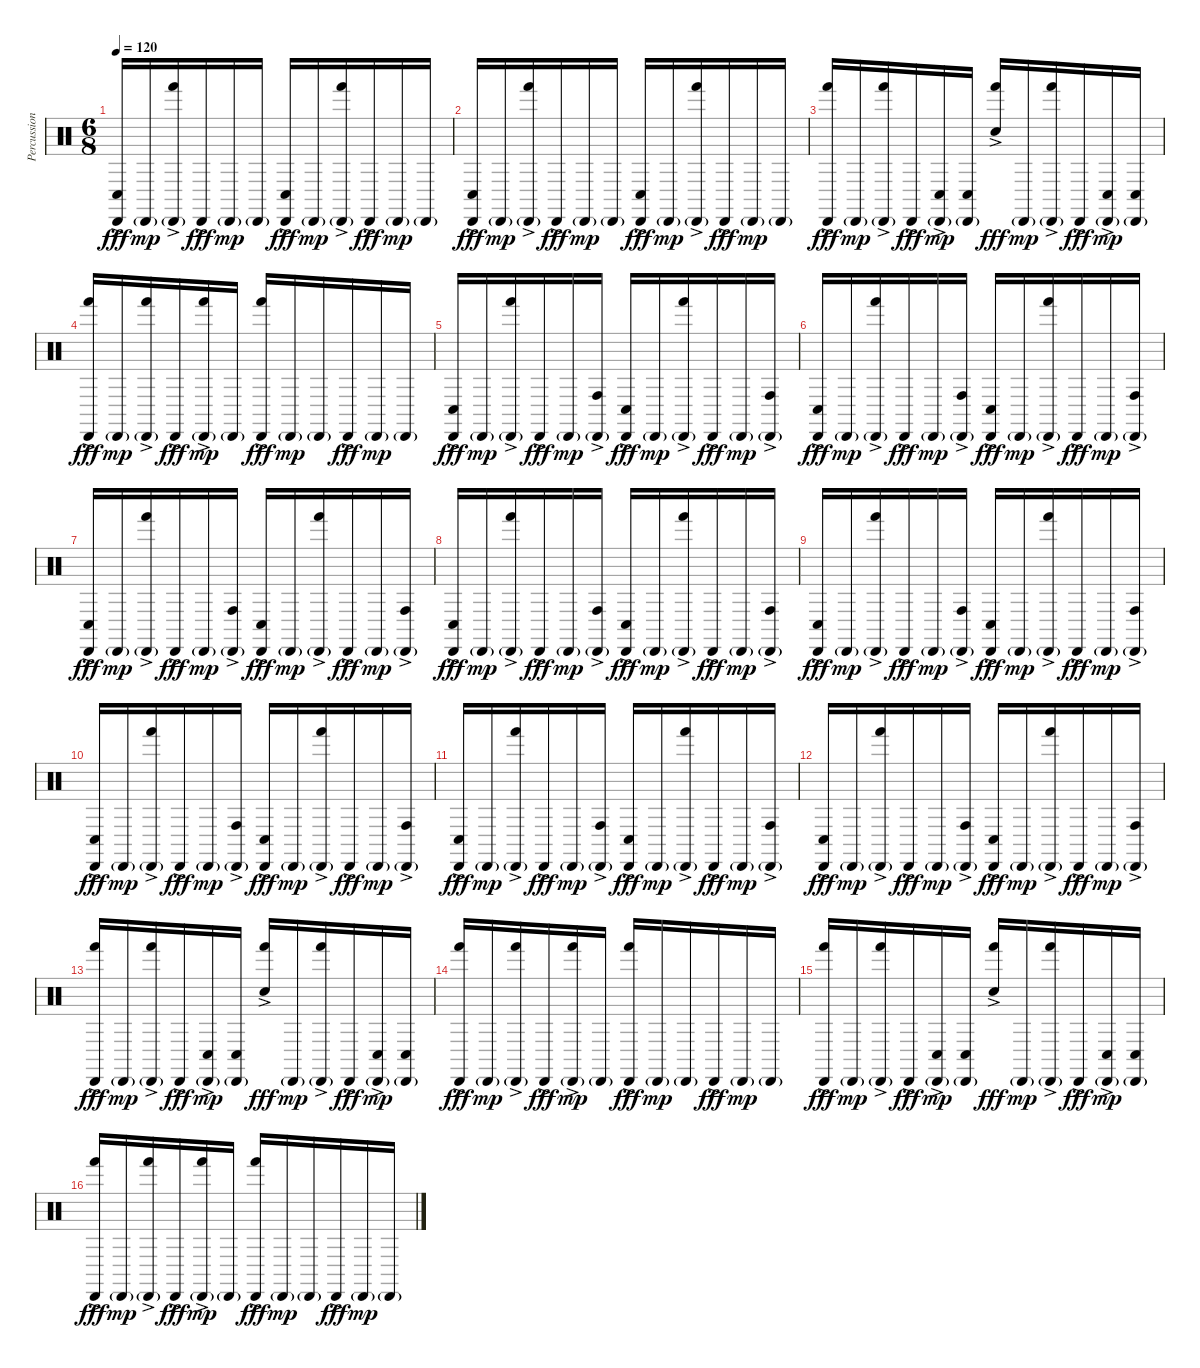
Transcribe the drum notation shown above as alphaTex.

\track ("Percussion" "Percussion") {instrument percussion}
\staff {score}
\articulation defaults
\ts (6 8)
\tempo 120
\clef neutral
\ks c
("Conga low (hit)"{ac} "Cabasa (hit)"{ac}).16{dy fff} "Cabasa (hit)"{g}.16{dy mp} ("Hand (hit)"{ac} "Cabasa (hit)"{g}).16 "Cabasa (hit)"{ac}.16{dy fff} "Cabasa (hit)"{g}.16{dy mp} "Cabasa (hit)"{g}.16 ("Conga low (hit)"{ac} "Cabasa (hit)"{ac}).16{dy fff} "Cabasa (hit)"{g}.16{dy mp} ("Hand (hit)"{ac} "Cabasa (hit)"{g}).16 "Cabasa (hit)"{ac}.16{dy fff} "Cabasa (hit)"{g}.16{dy mp} "Cabasa (hit)"{g}.16 |
("Conga low (hit)"{ac} "Cabasa (hit)"{ac}).16{dy fff} "Cabasa (hit)"{g}.16{dy mp} ("Hand (hit)"{ac} "Cabasa (hit)"{g}).16 "Cabasa (hit)"{ac}.16{dy fff} "Cabasa (hit)"{g}.16{dy mp} "Cabasa (hit)"{g}.16 ("Conga low (hit)"{ac} "Cabasa (hit)"{ac}).16{dy fff} "Cabasa (hit)"{g}.16{dy mp} ("Hand (hit)"{ac} "Cabasa (hit)"{g}).16 "Cabasa (hit)"{ac}.16{dy fff} "Cabasa (hit)"{g}.16{dy mp} "Cabasa (hit)"{g}.16 |
("Hand (hit)"{ac} "Cabasa (hit)"{ac}).16{dy fff} "Cabasa (hit)"{g}.16{dy mp} ("Hand (hit)"{ac} "Cabasa (hit)"{g}).16 "Cabasa (hit)"{ac}.16{dy fff} ("Conga low (hit)"{ac} "Cabasa (hit)"{g}).16{dy mp} ("Conga low (hit)" "Cabasa (hit)"{g}).16 ("Hand (hit)"{ac} "Snare (hit)"{ac}).16{dy fff} "Cabasa (hit)"{g}.16{dy mp} ("Hand (hit)"{ac} "Cabasa (hit)"{g}).16 "Cabasa (hit)"{ac}.16{dy fff} ("Conga low (hit)"{ac} "Cabasa (hit)"{g}).16{dy mp} ("Conga low (hit)" "Cabasa (hit)"{g}).16 |
("Hand (hit)"{ac} "Cabasa (hit)"{ac}).16{dy fff} "Cabasa (hit)"{g}.16{dy mp} ("Hand (hit)"{ac} "Cabasa (hit)"{g}).16 "Cabasa (hit)"{ac}.16{dy fff} ("Hand (hit)"{ac} "Cabasa (hit)"{g}).16{dy mp} "Cabasa (hit)"{g}.16 ("Hand (hit)"{ac} "Cabasa (hit)"{ac}).16{dy fff} "Cabasa (hit)"{g}.16{dy mp} "Cabasa (hit)"{g}.16 "Cabasa (hit)"{ac}.16{dy fff} "Cabasa (hit)"{g}.16{dy mp} "Cabasa (hit)"{g}.16 |
("Conga low (hit)"{ac} "Cabasa (hit)"{ac}).16{dy fff} "Cabasa (hit)"{g}.16{dy mp} ("Hand (hit)"{ac} "Cabasa (hit)"{g}).16 "Cabasa (hit)"{ac}.16{dy fff} "Cabasa (hit)"{g}.16{dy mp} ("Conga high (hit)"{ac} "Cabasa (hit)"{g}).16 ("Conga low (hit)"{ac} "Cabasa (hit)"{ac}).16{dy fff} "Cabasa (hit)"{g}.16{dy mp} ("Hand (hit)"{ac} "Cabasa (hit)"{g}).16 "Cabasa (hit)"{ac}.16{dy fff} "Cabasa (hit)"{g}.16{dy mp} ("Conga high (hit)"{ac} "Cabasa (hit)"{g}).16 |
("Conga low (hit)"{ac} "Cabasa (hit)"{ac}).16{dy fff} "Cabasa (hit)"{g}.16{dy mp} ("Hand (hit)"{ac} "Cabasa (hit)"{g}).16 "Cabasa (hit)"{ac}.16{dy fff} "Cabasa (hit)"{g}.16{dy mp} ("Conga high (hit)"{ac} "Cabasa (hit)"{g}).16 ("Conga low (hit)"{ac} "Cabasa (hit)"{ac}).16{dy fff} "Cabasa (hit)"{g}.16{dy mp} ("Hand (hit)"{ac} "Cabasa (hit)"{g}).16 "Cabasa (hit)"{ac}.16{dy fff} "Cabasa (hit)"{g}.16{dy mp} ("Conga high (hit)"{ac} "Cabasa (hit)"{g}).16 |
("Conga low (hit)"{ac} "Cabasa (hit)"{ac}).16{dy fff} "Cabasa (hit)"{g}.16{dy mp} ("Hand (hit)"{ac} "Cabasa (hit)"{g}).16 "Cabasa (hit)"{ac}.16{dy fff} "Cabasa (hit)"{g}.16{dy mp} ("Conga high (hit)"{ac} "Cabasa (hit)"{g}).16 ("Conga low (hit)"{ac} "Cabasa (hit)"{ac}).16{dy fff} "Cabasa (hit)"{g}.16{dy mp} ("Hand (hit)"{ac} "Cabasa (hit)"{g}).16 "Cabasa (hit)"{ac}.16{dy fff} "Cabasa (hit)"{g}.16{dy mp} ("Conga high (hit)"{ac} "Cabasa (hit)"{g}).16 |
("Conga low (hit)"{ac} "Cabasa (hit)"{ac}).16{dy fff} "Cabasa (hit)"{g}.16{dy mp} ("Hand (hit)"{ac} "Cabasa (hit)"{g}).16 "Cabasa (hit)"{ac}.16{dy fff} "Cabasa (hit)"{g}.16{dy mp} ("Conga high (hit)"{ac} "Cabasa (hit)"{g}).16 ("Conga low (hit)"{ac} "Cabasa (hit)"{ac}).16{dy fff} "Cabasa (hit)"{g}.16{dy mp} ("Hand (hit)"{ac} "Cabasa (hit)"{g}).16 "Cabasa (hit)"{ac}.16{dy fff} "Cabasa (hit)"{g}.16{dy mp} ("Conga high (hit)"{ac} "Cabasa (hit)"{g}).16 |
("Conga low (hit)"{ac} "Cabasa (hit)"{ac}).16{dy fff} "Cabasa (hit)"{g}.16{dy mp} ("Hand (hit)"{ac} "Cabasa (hit)"{g}).16 "Cabasa (hit)"{ac}.16{dy fff} "Cabasa (hit)"{g}.16{dy mp} ("Conga high (hit)"{ac} "Cabasa (hit)"{g}).16 ("Conga low (hit)"{ac} "Cabasa (hit)"{ac}).16{dy fff} "Cabasa (hit)"{g}.16{dy mp} ("Hand (hit)"{ac} "Cabasa (hit)"{g}).16 "Cabasa (hit)"{ac}.16{dy fff} "Cabasa (hit)"{g}.16{dy mp} ("Conga high (hit)"{ac} "Cabasa (hit)"{g}).16 |
("Conga low (hit)"{ac} "Cabasa (hit)"{ac}).16{dy fff} "Cabasa (hit)"{g}.16{dy mp} ("Hand (hit)"{ac} "Cabasa (hit)"{g}).16 "Cabasa (hit)"{ac}.16{dy fff} "Cabasa (hit)"{g}.16{dy mp} ("Conga high (hit)"{ac} "Cabasa (hit)"{g}).16 ("Conga low (hit)"{ac} "Cabasa (hit)"{ac}).16{dy fff} "Cabasa (hit)"{g}.16{dy mp} ("Hand (hit)"{ac} "Cabasa (hit)"{g}).16 "Cabasa (hit)"{ac}.16{dy fff} "Cabasa (hit)"{g}.16{dy mp} ("Conga high (hit)"{ac} "Cabasa (hit)"{g}).16 |
("Conga low (hit)"{ac} "Cabasa (hit)"{ac}).16{dy fff} "Cabasa (hit)"{g}.16{dy mp} ("Hand (hit)"{ac} "Cabasa (hit)"{g}).16 "Cabasa (hit)"{ac}.16{dy fff} "Cabasa (hit)"{g}.16{dy mp} ("Conga high (hit)"{ac} "Cabasa (hit)"{g}).16 ("Conga low (hit)"{ac} "Cabasa (hit)"{ac}).16{dy fff} "Cabasa (hit)"{g}.16{dy mp} ("Hand (hit)"{ac} "Cabasa (hit)"{g}).16 "Cabasa (hit)"{ac}.16{dy fff} "Cabasa (hit)"{g}.16{dy mp} ("Conga high (hit)"{ac} "Cabasa (hit)"{g}).16 |
("Conga low (hit)"{ac} "Cabasa (hit)"{ac}).16{dy fff} "Cabasa (hit)"{g}.16{dy mp} ("Hand (hit)"{ac} "Cabasa (hit)"{g}).16 "Cabasa (hit)"{ac}.16{dy fff} "Cabasa (hit)"{g}.16{dy mp} ("Conga high (hit)"{ac} "Cabasa (hit)"{g}).16 ("Conga low (hit)"{ac} "Cabasa (hit)"{ac}).16{dy fff} "Cabasa (hit)"{g}.16{dy mp} ("Hand (hit)"{ac} "Cabasa (hit)"{g}).16 "Cabasa (hit)"{ac}.16{dy fff} "Cabasa (hit)"{g}.16{dy mp} ("Conga high (hit)"{ac} "Cabasa (hit)"{g}).16 |
("Hand (hit)"{ac} "Cabasa (hit)"{ac}).16{dy fff} "Cabasa (hit)"{g}.16{dy mp} ("Hand (hit)"{ac} "Cabasa (hit)"{g}).16 "Cabasa (hit)"{ac}.16{dy fff} ("Conga low (hit)"{ac} "Cabasa (hit)"{g}).16{dy mp} ("Conga low (hit)" "Cabasa (hit)"{g}).16 ("Hand (hit)"{ac} "Snare (hit)"{ac}).16{dy fff} "Cabasa (hit)"{g}.16{dy mp} ("Hand (hit)"{ac} "Cabasa (hit)"{g}).16 "Cabasa (hit)"{ac}.16{dy fff} ("Conga low (hit)"{ac} "Cabasa (hit)"{g}).16{dy mp} ("Conga low (hit)" "Cabasa (hit)"{g}).16 |
("Hand (hit)"{ac} "Cabasa (hit)"{ac}).16{dy fff} "Cabasa (hit)"{g}.16{dy mp} ("Hand (hit)"{ac} "Cabasa (hit)"{g}).16 "Cabasa (hit)"{ac}.16{dy fff} ("Hand (hit)"{ac} "Cabasa (hit)"{g}).16{dy mp} "Cabasa (hit)"{g}.16 ("Hand (hit)"{ac} "Cabasa (hit)"{ac}).16{dy fff} "Cabasa (hit)"{g}.16{dy mp} "Cabasa (hit)"{g}.16 "Cabasa (hit)"{ac}.16{dy fff} "Cabasa (hit)"{g}.16{dy mp} "Cabasa (hit)"{g}.16 |
("Hand (hit)"{ac} "Cabasa (hit)"{ac}).16{dy fff} "Cabasa (hit)"{g}.16{dy mp} ("Hand (hit)"{ac} "Cabasa (hit)"{g}).16 "Cabasa (hit)"{ac}.16{dy fff} ("Conga low (hit)"{ac} "Cabasa (hit)"{g}).16{dy mp} ("Conga low (hit)" "Cabasa (hit)"{g}).16 ("Hand (hit)"{ac} "Snare (hit)"{ac}).16{dy fff} "Cabasa (hit)"{g}.16{dy mp} ("Hand (hit)"{ac} "Cabasa (hit)"{g}).16 "Cabasa (hit)"{ac}.16{dy fff} ("Conga low (hit)"{ac} "Cabasa (hit)"{g}).16{dy mp} ("Conga low (hit)" "Cabasa (hit)"{g}).16 |
("Hand (hit)"{ac} "Cabasa (hit)"{ac}).16{dy fff} "Cabasa (hit)"{g}.16{dy mp} ("Hand (hit)"{ac} "Cabasa (hit)"{g}).16 "Cabasa (hit)"{ac}.16{dy fff} ("Hand (hit)"{ac} "Cabasa (hit)"{g}).16{dy mp} "Cabasa (hit)"{g}.16 ("Hand (hit)"{ac} "Cabasa (hit)"{ac}).16{dy fff} "Cabasa (hit)"{g}.16{dy mp} "Cabasa (hit)"{g}.16 "Cabasa (hit)"{ac}.16{dy fff} "Cabasa (hit)"{g}.16{dy mp} "Cabasa (hit)"{g}.16
